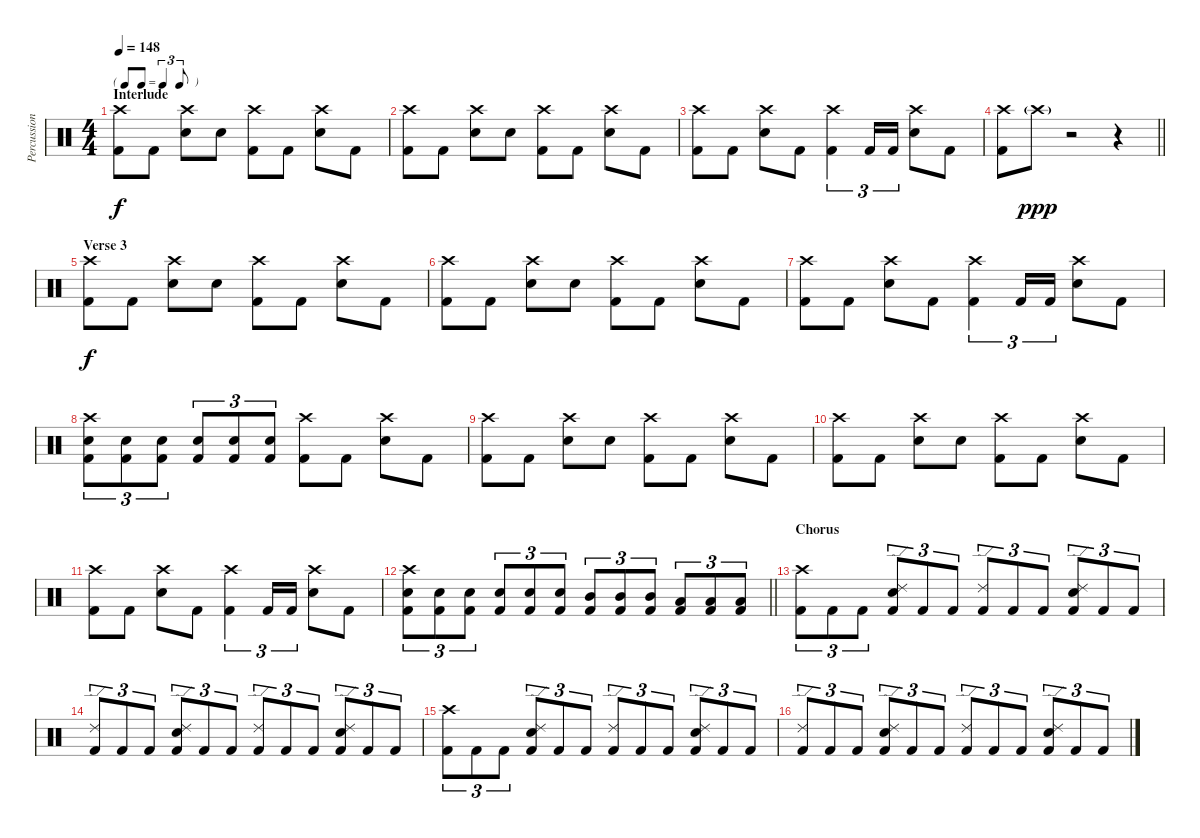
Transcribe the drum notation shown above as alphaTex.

\track ("Percussion" "Percussion") {instrument percussion}
\staff {score}
\articulation defaults
\ts (4 4)
\tf triplet8th
\section ("" "Interlude")
\tempo 148
\clef neutral
\ks c
("Crash high (hit)" "Kick (hit) 2").8{dy f} "Kick (hit) 2".8 ("Crash high (hit)" "Snare (hit) 2").8 "Snare (hit) 2".8 ("Crash high (hit)" "Kick (hit) 2").8 "Kick (hit) 2".8 ("Crash high (hit)" "Snare (hit) 2").8 "Kick (hit) 2".8 |
("Crash high (hit)" "Kick (hit) 2").8 "Kick (hit) 2".8 ("Crash high (hit)" "Snare (hit) 2").8 "Snare (hit) 2".8 ("Crash high (hit)" "Kick (hit) 2").8 "Kick (hit) 2".8 ("Crash high (hit)" "Snare (hit) 2").8 "Kick (hit) 2".8 |
("Crash high (hit)" "Kick (hit) 2").8 "Kick (hit) 2".8 ("Crash high (hit)" "Snare (hit) 2").8 "Kick (hit) 2".8 ("Crash high (hit)" "Kick (hit) 2").4{tu (3 2)} "Kick (hit) 2".16{tu (3 2)} "Kick (hit) 2".16{tu (3 2)} ("Crash high (hit)" "Snare (hit) 2").8 "Kick (hit) 2".8 |
\barLineRight lightlight
("Crash high (hit)" "Kick (hit) 2").8 "Crash high (hit)"{g}.8{dy ppp} r.2 r.4 |
\section ("" "Verse 3")
("Crash high (hit)" "Kick (hit) 2").8{dy f} "Kick (hit) 2".8 ("Crash high (hit)" "Snare (hit) 2").8 "Snare (hit) 2".8 ("Crash high (hit)" "Kick (hit) 2").8 "Kick (hit) 2".8 ("Crash high (hit)" "Snare (hit) 2").8 "Kick (hit) 2".8 |
("Crash high (hit)" "Kick (hit) 2").8 "Kick (hit) 2".8 ("Crash high (hit)" "Snare (hit) 2").8 "Snare (hit) 2".8 ("Crash high (hit)" "Kick (hit) 2").8 "Kick (hit) 2".8 ("Crash high (hit)" "Snare (hit) 2").8 "Kick (hit) 2".8 |
("Crash high (hit)" "Kick (hit) 2").8 "Kick (hit) 2".8 ("Crash high (hit)" "Snare (hit) 2").8 "Kick (hit) 2".8 ("Crash high (hit)" "Kick (hit) 2").4{tu (3 2)} "Kick (hit) 2".16{tu (3 2)} "Kick (hit) 2".16{tu (3 2)} ("Crash high (hit)" "Snare (hit) 2").8 "Kick (hit) 2".8 |
("Crash high (hit)" "Snare (hit) 2" "Kick (hit) 2").8{tu (3 2)} ("Snare (hit) 2" "Kick (hit) 2").8{tu (3 2)} ("Snare (hit) 2" "Kick (hit) 2").8{tu (3 2)} ("Snare (hit) 2" "Kick (hit) 2").8{tu (3 2)} ("Snare (hit) 2" "Kick (hit) 2").8{tu (3 2)} ("Snare (hit) 2" "Kick (hit) 2").8{tu (3 2)} ("Crash high (hit)" "Kick (hit) 2").8 "Kick (hit) 2".8 ("Crash high (hit)" "Snare (hit) 2").8 "Kick (hit) 2".8 |
("Crash high (hit)" "Kick (hit) 2").8 "Kick (hit) 2".8 ("Crash high (hit)" "Snare (hit) 2").8 "Snare (hit) 2".8 ("Crash high (hit)" "Kick (hit) 2").8 "Kick (hit) 2".8 ("Crash high (hit)" "Snare (hit) 2").8 "Kick (hit) 2".8 |
("Crash high (hit)" "Kick (hit) 2").8 "Kick (hit) 2".8 ("Crash high (hit)" "Snare (hit) 2").8 "Snare (hit) 2".8 ("Crash high (hit)" "Kick (hit) 2").8 "Kick (hit) 2".8 ("Crash high (hit)" "Snare (hit) 2").8 "Kick (hit) 2".8 |
("Crash high (hit)" "Kick (hit) 2").8 "Kick (hit) 2".8 ("Crash high (hit)" "Snare (hit) 2").8 "Kick (hit) 2".8 ("Crash high (hit)" "Kick (hit) 2").4{tu (3 2)} "Kick (hit) 2".16{tu (3 2)} "Kick (hit) 2".16{tu (3 2)} ("Crash high (hit)" "Snare (hit) 2").8 "Kick (hit) 2".8 |
\barLineRight lightlight
("Crash high (hit)" "Snare (hit) 2" "Kick (hit) 2").8{tu (3 2)} ("Snare (hit) 2" "Kick (hit) 2").8{tu (3 2)} ("Snare (hit) 2" "Kick (hit) 2").8{tu (3 2)} ("Snare (hit) 2" "Kick (hit) 2").8{tu (3 2)} ("Snare (hit) 2" "Kick (hit) 2").8{tu (3 2)} ("Snare (hit) 2" "Kick (hit) 2").8{tu (3 2)} ("Mid Tom (hit)" "Kick (hit) 2").8{tu (3 2)} ("Mid Tom (hit)" "Kick (hit) 2").8{tu (3 2)} ("Mid Tom (hit)" "Kick (hit) 2").8{tu (3 2)} ("Low Tom (hit)" "Kick (hit) 2").8{tu (3 2)} ("Low Tom (hit)" "Kick (hit) 2").8{tu (3 2)} ("Low Tom (hit)" "Kick (hit) 2").8{tu (3 2)} |
\section ("" "Chorus")
("Crash high (hit)" "Kick (hit) 2").8{tu (3 2)} "Kick (hit) 2".8{tu (3 2)} "Kick (hit) 2".8{tu (3 2)} ("Ride (edge) 2" "Snare (hit) 2" "Kick (hit) 2").8{tu (3 2)} "Kick (hit) 2".8{tu (3 2)} "Kick (hit) 2".8{tu (3 2)} ("Ride (edge) 2" "Kick (hit) 2").8{tu (3 2)} "Kick (hit) 2".8{tu (3 2)} "Kick (hit) 2".8{tu (3 2)} ("Ride (edge) 2" "Snare (hit) 2" "Kick (hit) 2").8{tu (3 2)} "Kick (hit) 2".8{tu (3 2)} "Kick (hit) 2".8{tu (3 2)} |
("Ride (edge) 2" "Kick (hit) 2").8{tu (3 2)} "Kick (hit) 2".8{tu (3 2)} "Kick (hit) 2".8{tu (3 2)} ("Ride (edge) 2" "Snare (hit) 2" "Kick (hit) 2").8{tu (3 2)} "Kick (hit) 2".8{tu (3 2)} "Kick (hit) 2".8{tu (3 2)} ("Ride (edge) 2" "Kick (hit) 2").8{tu (3 2)} "Kick (hit) 2".8{tu (3 2)} "Kick (hit) 2".8{tu (3 2)} ("Ride (edge) 2" "Snare (hit) 2" "Kick (hit) 2").8{tu (3 2)} "Kick (hit) 2".8{tu (3 2)} "Kick (hit) 2".8{tu (3 2)} |
("Crash high (hit)" "Kick (hit) 2").8{tu (3 2)} "Kick (hit) 2".8{tu (3 2)} "Kick (hit) 2".8{tu (3 2)} ("Ride (edge) 2" "Snare (hit) 2" "Kick (hit) 2").8{tu (3 2)} "Kick (hit) 2".8{tu (3 2)} "Kick (hit) 2".8{tu (3 2)} ("Ride (edge) 2" "Kick (hit) 2").8{tu (3 2)} "Kick (hit) 2".8{tu (3 2)} "Kick (hit) 2".8{tu (3 2)} ("Ride (edge) 2" "Snare (hit) 2" "Kick (hit) 2").8{tu (3 2)} "Kick (hit) 2".8{tu (3 2)} "Kick (hit) 2".8{tu (3 2)} |
("Ride (edge) 2" "Kick (hit) 2").8{tu (3 2)} "Kick (hit) 2".8{tu (3 2)} "Kick (hit) 2".8{tu (3 2)} ("Ride (edge) 2" "Snare (hit) 2" "Kick (hit) 2").8{tu (3 2)} "Kick (hit) 2".8{tu (3 2)} "Kick (hit) 2".8{tu (3 2)} ("Ride (edge) 2" "Kick (hit) 2").8{tu (3 2)} "Kick (hit) 2".8{tu (3 2)} "Kick (hit) 2".8{tu (3 2)} ("Ride (edge) 2" "Snare (hit) 2" "Kick (hit) 2").8{tu (3 2)} "Kick (hit) 2".8{tu (3 2)} "Kick (hit) 2".8{tu (3 2)}
